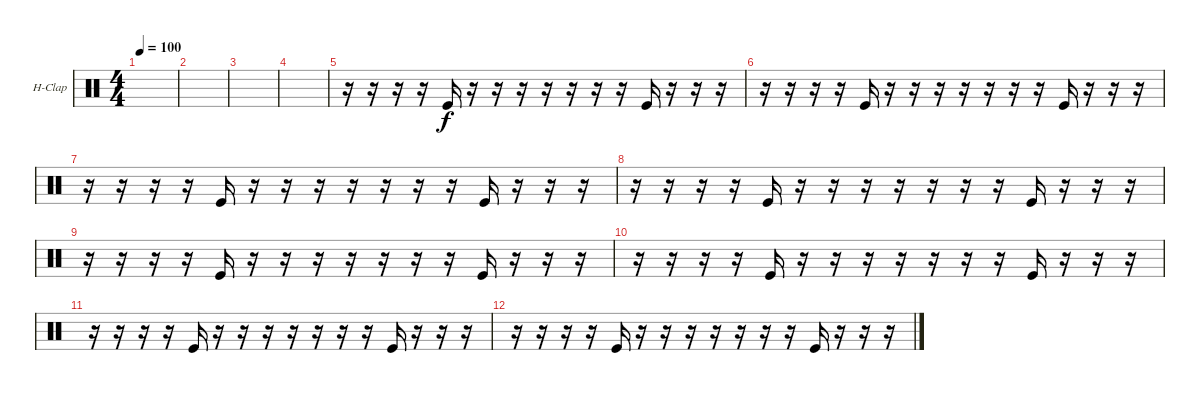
\defaultSystemsLayout 4
\bracketExtendMode groupsimilarinstruments
\firstSystemTrackNameOrientation horizontal
\otherSystemsTrackNameOrientation horizontal
\track ("Hand Clap" "H-Clap") {instrument percussion}
\staff {score}
\articulation defaults
\ts (4 4)
\tempo 100
\clef neutral
\scale
0.333333
\ks c
|
\scale
0.333333 |
\scale
0.333333 |
\scale
0.333333 |
\scale
0.333333 r.16 r.16 r.16 r.16 "Kick (hit)".16 r.16 r.16 r.16 r.16 r.16 r.16 r.16 "Kick (hit)".16 r.16 r.16 r.16 |
\scale
0.333333 r.16 r.16 r.16 r.16 "Kick (hit)".16 r.16 r.16 r.16 r.16 r.16 r.16 r.16 "Kick (hit)".16 r.16 r.16 r.16 |
\scale
0.333333 r.16 r.16 r.16 r.16 "Kick (hit)".16 r.16 r.16 r.16 r.16 r.16 r.16 r.16 "Kick (hit)".16 r.16 r.16 r.16 |
\scale
0.333333 r.16 r.16 r.16 r.16 "Kick (hit)".16 r.16 r.16 r.16 r.16 r.16 r.16 r.16 "Kick (hit)".16 r.16 r.16 r.16 |
\scale
0.333333 r.16 r.16 r.16 r.16 "Kick (hit)".16 r.16 r.16 r.16 r.16 r.16 r.16 r.16 "Kick (hit)".16 r.16 r.16 r.16 |
\scale
0.333333 r.16 r.16 r.16 r.16 "Kick (hit)".16 r.16 r.16 r.16 r.16 r.16 r.16 r.16 "Kick (hit)".16 r.16 r.16 r.16 |
\scale
0.333333 r.16 r.16 r.16 r.16 "Kick (hit)".16 r.16 r.16 r.16 r.16 r.16 r.16 r.16 "Kick (hit)".16 r.16 r.16 r.16 |
\scale
0.333333 r.16 r.16 r.16 r.16 "Kick (hit)".16 r.16 r.16 r.16 r.16 r.16 r.16 r.16 "Kick (hit)".16 r.16 r.16 r.16 |
\scale
0.333333
